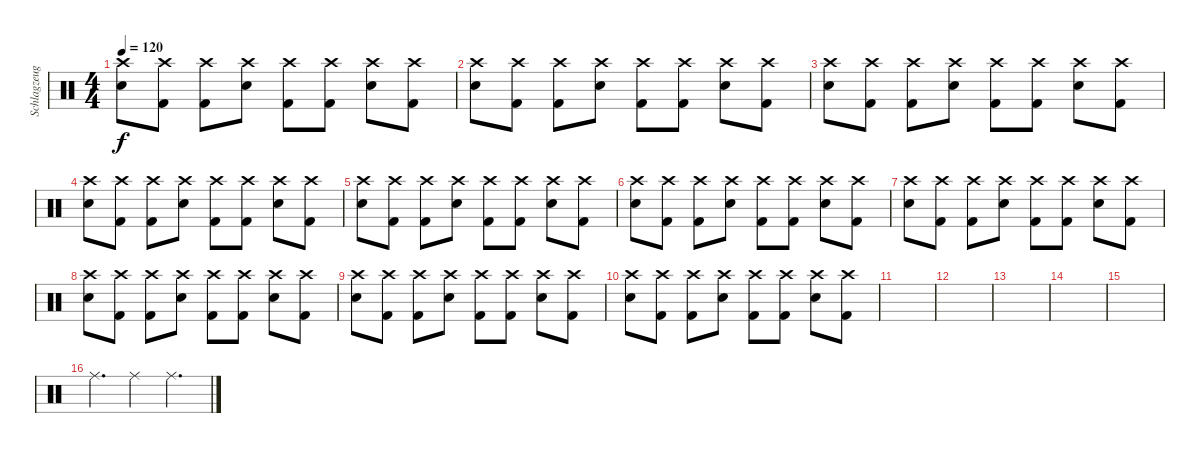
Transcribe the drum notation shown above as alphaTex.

\track ("Schlagzeug[Gustav Schäfer]" "Schlagzeug") {instrument percussion}
\staff {score}
\articulation defaults
\ts (4 4)
\tempo 120
\clef neutral
\ks c
("Snare (hit) 2" "Crash high (hit)").8{dy f} ("Kick (hit) 2" "Crash high (hit)").8 ("Crash high (hit)" "Kick (hit) 2").8 ("Snare (hit) 2" "Crash high (hit)").8 ("Kick (hit) 2" "Crash high (hit)").8 ("Kick (hit) 2" "Crash high (hit)").8 ("Snare (hit) 2" "Crash high (hit)").8 ("Crash high (hit)" "Kick (hit) 2").8 |
("Snare (hit) 2" "Crash high (hit)").8 ("Kick (hit) 2" "Crash high (hit)").8 ("Crash high (hit)" "Kick (hit) 2").8 ("Snare (hit) 2" "Crash high (hit)").8 ("Kick (hit) 2" "Crash high (hit)").8 ("Kick (hit) 2" "Crash high (hit)").8 ("Snare (hit) 2" "Crash high (hit)").8 ("Crash high (hit)" "Kick (hit) 2").8 |
("Snare (hit) 2" "Crash high (hit)").8 ("Kick (hit) 2" "Crash high (hit)").8 ("Crash high (hit)" "Kick (hit) 2").8 ("Snare (hit) 2" "Crash high (hit)").8 ("Kick (hit) 2" "Crash high (hit)").8 ("Kick (hit) 2" "Crash high (hit)").8 ("Snare (hit) 2" "Crash high (hit)").8 ("Crash high (hit)" "Kick (hit) 2").8 |
("Snare (hit) 2" "Crash high (hit)").8 ("Kick (hit) 2" "Crash high (hit)").8 ("Crash high (hit)" "Kick (hit) 2").8 ("Snare (hit) 2" "Crash high (hit)").8 ("Kick (hit) 2" "Crash high (hit)").8 ("Kick (hit) 2" "Crash high (hit)").8 ("Snare (hit) 2" "Crash high (hit)").8 ("Crash high (hit)" "Kick (hit) 2").8 |
("Snare (hit) 2" "Crash high (hit)").8 ("Kick (hit) 2" "Crash high (hit)").8 ("Crash high (hit)" "Kick (hit) 2").8 ("Snare (hit) 2" "Crash high (hit)").8 ("Kick (hit) 2" "Crash high (hit)").8 ("Kick (hit) 2" "Crash high (hit)").8 ("Snare (hit) 2" "Crash high (hit)").8 ("Crash high (hit)" "Kick (hit) 2").8 |
("Snare (hit) 2" "Crash high (hit)").8 ("Kick (hit) 2" "Crash high (hit)").8 ("Crash high (hit)" "Kick (hit) 2").8 ("Snare (hit) 2" "Crash high (hit)").8 ("Kick (hit) 2" "Crash high (hit)").8 ("Kick (hit) 2" "Crash high (hit)").8 ("Snare (hit) 2" "Crash high (hit)").8 ("Crash high (hit)" "Kick (hit) 2").8 |
("Snare (hit) 2" "Crash high (hit)").8 ("Kick (hit) 2" "Crash high (hit)").8 ("Crash high (hit)" "Kick (hit) 2").8 ("Snare (hit) 2" "Crash high (hit)").8 ("Kick (hit) 2" "Crash high (hit)").8 ("Kick (hit) 2" "Crash high (hit)").8 ("Snare (hit) 2" "Crash high (hit)").8 ("Crash high (hit)" "Kick (hit) 2").8 |
("Snare (hit) 2" "Crash high (hit)").8 ("Kick (hit) 2" "Crash high (hit)").8 ("Crash high (hit)" "Kick (hit) 2").8 ("Snare (hit) 2" "Crash high (hit)").8 ("Kick (hit) 2" "Crash high (hit)").8 ("Kick (hit) 2" "Crash high (hit)").8 ("Snare (hit) 2" "Crash high (hit)").8 ("Crash high (hit)" "Kick (hit) 2").8 |
("Snare (hit) 2" "Crash high (hit)").8 ("Kick (hit) 2" "Crash high (hit)").8 ("Crash high (hit)" "Kick (hit) 2").8 ("Snare (hit) 2" "Crash high (hit)").8 ("Kick (hit) 2" "Crash high (hit)").8 ("Kick (hit) 2" "Crash high (hit)").8 ("Snare (hit) 2" "Crash high (hit)").8 ("Crash high (hit)" "Kick (hit) 2").8 |
("Snare (hit) 2" "Crash high (hit)").8 ("Kick (hit) 2" "Crash high (hit)").8 ("Crash high (hit)" "Kick (hit) 2").8 ("Snare (hit) 2" "Crash high (hit)").8 ("Kick (hit) 2" "Crash high (hit)").8 ("Kick (hit) 2" "Crash high (hit)").8 ("Snare (hit) 2" "Crash high (hit)").8 ("Crash high (hit)" "Kick (hit) 2").8 |
|
|
|
|
|
"Ride (middle)".4{d volume 16} "Ride (middle)".4 "Ride (middle)".4{d}
